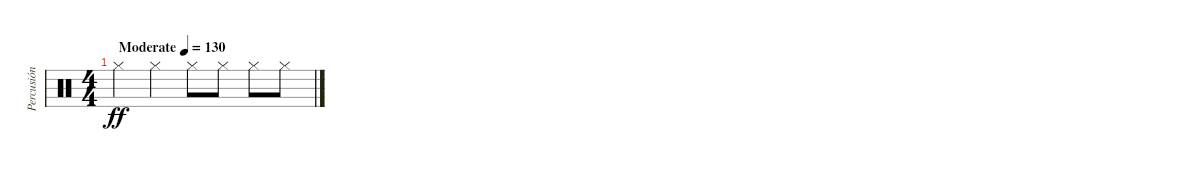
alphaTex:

\track ("Percusión" "Percusión") {instrument percussion}
\staff {score}
\articulation defaults
\ts (4 4)
\tempo (130 "Moderate")
\clef neutral
\ks c "Hi-Hat (closed)".4{dy ff} "Hi-Hat (closed)".4 "Hi-Hat (closed)".8 "Hi-Hat (closed)".8 "Hi-Hat (closed)".8 "Hi-Hat (closed)".8
